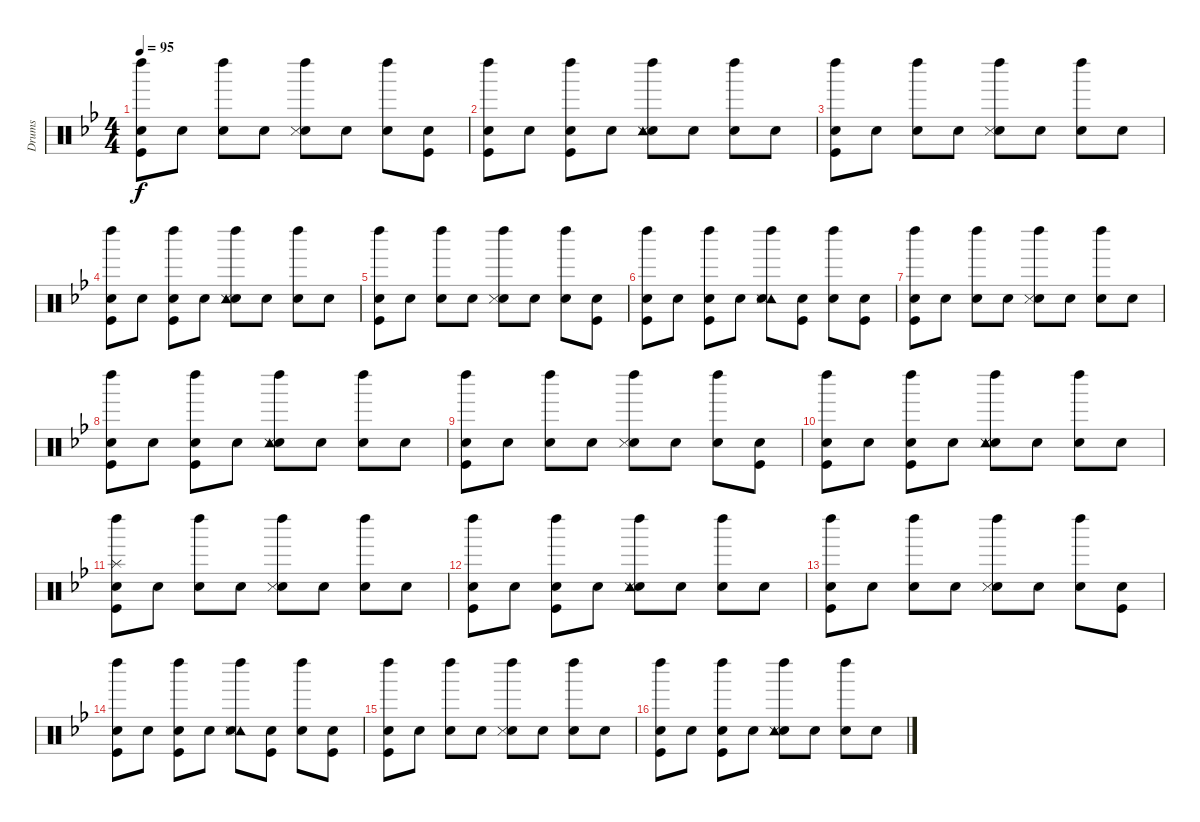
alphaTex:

\track ("Drums" "Drums") {instrument percussion}
\staff {score}
\articulation defaults
\ts (4 4)
\tempo 95
\clef neutral
\ks gminor
("Left Maraca (hit)" "Snare (hit)" "Kick (hit)").8{dy f} "Snare (hit)".8 ("Left Maraca (hit)" "Snare (hit)").8 "Snare (hit)".8 ("Left Maraca (hit)" "Snare (hit)" "Snare (side stick) 3").8 "Snare (hit)".8 ("Left Maraca (hit)" "Snare (hit)").8 ("Snare (hit)" "Kick (hit)").8 |
("Left Maraca (hit)" "Snare (hit)" "Kick (hit)").8 "Snare (hit)".8 ("Left Maraca (hit)" "Snare (hit)" "Kick (hit)").8 "Snare (hit)".8 ("Left Maraca (hit)" "Snare (hit)" "Tambourine (hit)" "Snare (side stick) 3").8 "Snare (hit)".8 ("Left Maraca (hit)" "Snare (hit)").8 "Snare (hit)".8 |
("Left Maraca (hit)" "Snare (hit)" "Kick (hit)").8 "Snare (hit)".8 ("Left Maraca (hit)" "Snare (hit)").8 "Snare (hit)".8 ("Left Maraca (hit)" "Snare (hit)" "Snare (side stick) 3").8 "Snare (hit)".8 ("Left Maraca (hit)" "Snare (hit)").8 "Snare (hit)".8 |
("Left Maraca (hit)" "Snare (hit)" "Kick (hit)").8 "Snare (hit)".8 ("Left Maraca (hit)" "Snare (hit)" "Kick (hit)").8 "Snare (hit)".8 ("Left Maraca (hit)" "Snare (hit)" "Tambourine (hit)" "Snare (side stick) 3").8 "Snare (hit)".8 ("Left Maraca (hit)" "Snare (hit)").8 "Snare (hit)".8 |
("Left Maraca (hit)" "Snare (hit)" "Kick (hit)").8 "Snare (hit)".8 ("Left Maraca (hit)" "Snare (hit)").8 "Snare (hit)".8 ("Left Maraca (hit)" "Snare (hit)" "Snare (side stick) 3").8 "Snare (hit)".8 ("Left Maraca (hit)" "Snare (hit)").8 ("Snare (hit)" "Kick (hit)").8 |
("Left Maraca (hit)" "Snare (hit)" "Kick (hit)").8 "Snare (hit)".8 ("Left Maraca (hit)" "Snare (hit)" "Kick (hit)").8 "Snare (hit)".8 ("Left Maraca (hit)" "Tambourine (hit)" "Snare (hit)" "Snare (side stick) 3").8 ("Snare (hit)" "Kick (hit)").8 ("Left Maraca (hit)" "Snare (hit)").8 ("Snare (hit)" "Kick (hit)").8 |
("Left Maraca (hit)" "Snare (hit)" "Kick (hit)").8 "Snare (hit)".8 ("Left Maraca (hit)" "Snare (hit)").8 "Snare (hit)".8 ("Left Maraca (hit)" "Snare (hit)" "Snare (side stick) 3").8 "Snare (hit)".8 ("Left Maraca (hit)" "Snare (hit)").8 "Snare (hit)".8 |
("Left Maraca (hit)" "Snare (hit)" "Kick (hit)").8 "Snare (hit)".8 ("Left Maraca (hit)" "Snare (hit)" "Kick (hit)").8 "Snare (hit)".8 ("Left Maraca (hit)" "Snare (hit)" "Tambourine (hit)" "Snare (side stick) 3").8 "Snare (hit)".8 ("Left Maraca (hit)" "Snare (hit)").8 "Snare (hit)".8 |
("Left Maraca (hit)" "Snare (hit)" "Kick (hit)").8 "Snare (hit)".8 ("Left Maraca (hit)" "Snare (hit)").8 "Snare (hit)".8 ("Left Maraca (hit)" "Snare (hit)" "Snare (side stick) 3").8 "Snare (hit)".8 ("Left Maraca (hit)" "Snare (hit)").8 ("Snare (hit)" "Kick (hit)").8 |
("Left Maraca (hit)" "Snare (hit)" "Kick (hit)").8 "Snare (hit)".8 ("Left Maraca (hit)" "Snare (hit)" "Kick (hit)").8 "Snare (hit)".8 ("Left Maraca (hit)" "Snare (hit)" "Tambourine (hit)" "Snare (side stick) 3").8 "Snare (hit)".8 ("Left Maraca (hit)" "Snare (hit)").8 "Snare (hit)".8 |
("Left Maraca (hit)" "Snare (hit)" "Splash (hit)" "Kick (hit)").8 "Snare (hit)".8 ("Left Maraca (hit)" "Snare (hit)").8 "Snare (hit)".8 ("Left Maraca (hit)" "Snare (hit)" "Snare (side stick) 3").8 "Snare (hit)".8 ("Left Maraca (hit)" "Snare (hit)").8 "Snare (hit)".8 |
("Left Maraca (hit)" "Snare (hit)" "Kick (hit)").8 "Snare (hit)".8 ("Left Maraca (hit)" "Snare (hit)" "Kick (hit)").8 "Snare (hit)".8 ("Left Maraca (hit)" "Snare (hit)" "Tambourine (hit)" "Snare (side stick) 3").8 "Snare (hit)".8 ("Left Maraca (hit)" "Snare (hit)").8 "Snare (hit)".8 |
("Left Maraca (hit)" "Snare (hit)" "Kick (hit)").8 "Snare (hit)".8 ("Left Maraca (hit)" "Snare (hit)").8 "Snare (hit)".8 ("Left Maraca (hit)" "Snare (hit)" "Snare (side stick) 3").8 "Snare (hit)".8 ("Left Maraca (hit)" "Snare (hit)").8 ("Snare (hit)" "Kick (hit)").8 |
("Left Maraca (hit)" "Snare (hit)" "Kick (hit)").8 "Snare (hit)".8 ("Left Maraca (hit)" "Snare (hit)" "Kick (hit)").8 "Snare (hit)".8 ("Left Maraca (hit)" "Tambourine (hit)" "Snare (hit)" "Snare (side stick) 3").8 ("Snare (hit)" "Kick (hit)").8 ("Left Maraca (hit)" "Snare (hit)").8 ("Snare (hit)" "Kick (hit)").8 |
("Left Maraca (hit)" "Snare (hit)" "Kick (hit)").8 "Snare (hit)".8 ("Left Maraca (hit)" "Snare (hit)").8 "Snare (hit)".8 ("Left Maraca (hit)" "Snare (hit)" "Snare (side stick) 3").8 "Snare (hit)".8 ("Left Maraca (hit)" "Snare (hit)").8 "Snare (hit)".8 |
("Left Maraca (hit)" "Snare (hit)" "Kick (hit)").8 "Snare (hit)".8 ("Left Maraca (hit)" "Snare (hit)" "Kick (hit)").8 "Snare (hit)".8 ("Left Maraca (hit)" "Snare (hit)" "Tambourine (hit)" "Snare (side stick) 3").8 "Snare (hit)".8 ("Left Maraca (hit)" "Snare (hit)").8 "Snare (hit)".8
